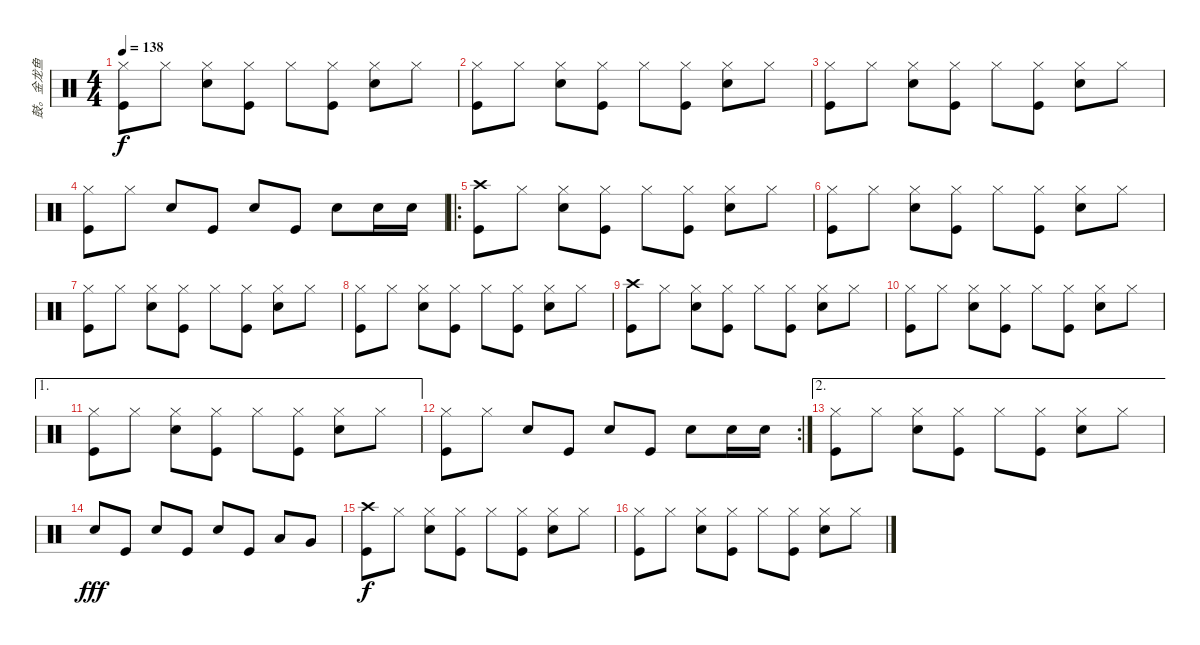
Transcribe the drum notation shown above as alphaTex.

\track ("鼓。金龙鱼" "鼓。金龙鱼") {instrument percussion}
\staff {score}
\articulation defaults
\ts (4 4)
\tempo 138
\clef neutral
\ks c
("Hi-Hat (closed)" "Kick (hit)").8{dy f} "Hi-Hat (closed)".8 ("Hi-Hat (closed)" "Snare (hit) 2").8 ("Hi-Hat (closed)" "Kick (hit)").8 "Hi-Hat (closed)".8 ("Hi-Hat (closed)" "Kick (hit)").8 ("Hi-Hat (closed)" "Snare (hit) 2").8 "Hi-Hat (closed)".8 |
("Hi-Hat (closed)" "Kick (hit)").8 "Hi-Hat (closed)".8 ("Hi-Hat (closed)" "Snare (hit) 2").8 ("Hi-Hat (closed)" "Kick (hit)").8 "Hi-Hat (closed)".8 ("Hi-Hat (closed)" "Kick (hit)").8 ("Hi-Hat (closed)" "Snare (hit) 2").8 "Hi-Hat (closed)".8 |
("Hi-Hat (closed)" "Kick (hit)").8 "Hi-Hat (closed)".8 ("Hi-Hat (closed)" "Snare (hit) 2").8 ("Hi-Hat (closed)" "Kick (hit)").8 "Hi-Hat (closed)".8 ("Hi-Hat (closed)" "Kick (hit)").8 ("Hi-Hat (closed)" "Snare (hit) 2").8 "Hi-Hat (closed)".8 |
("Hi-Hat (closed)" "Kick (hit)").8 "Hi-Hat (closed)".8 "Snare (hit) 2".8 "Kick (hit)".8 "Snare (hit) 2".8 "Kick (hit)".8 "Snare (hit) 2".8 "Snare (hit) 2".16 "Snare (hit) 2".16 |
\ro
("Crash high (hit)" "Kick (hit)").8 "Hi-Hat (closed)".8 ("Hi-Hat (closed)" "Snare (hit) 2").8 ("Hi-Hat (closed)" "Kick (hit)").8 "Hi-Hat (closed)".8 ("Hi-Hat (closed)" "Kick (hit)").8 ("Hi-Hat (closed)" "Snare (hit) 2").8 "Hi-Hat (closed)".8 |
("Hi-Hat (closed)" "Kick (hit)").8 "Hi-Hat (closed)".8 ("Hi-Hat (closed)" "Snare (hit) 2").8 ("Hi-Hat (closed)" "Kick (hit)").8 "Hi-Hat (closed)".8 ("Hi-Hat (closed)" "Kick (hit)").8 ("Hi-Hat (closed)" "Snare (hit) 2").8 "Hi-Hat (closed)".8 |
("Hi-Hat (closed)" "Kick (hit)").8 "Hi-Hat (closed)".8 ("Hi-Hat (closed)" "Snare (hit) 2").8 ("Hi-Hat (closed)" "Kick (hit)").8 "Hi-Hat (closed)".8 ("Hi-Hat (closed)" "Kick (hit)").8 ("Hi-Hat (closed)" "Snare (hit) 2").8 "Hi-Hat (closed)".8 |
("Hi-Hat (closed)" "Kick (hit)").8 "Hi-Hat (closed)".8 ("Hi-Hat (closed)" "Snare (hit) 2").8 ("Hi-Hat (closed)" "Kick (hit)").8 "Hi-Hat (closed)".8 ("Hi-Hat (closed)" "Kick (hit)").8 ("Hi-Hat (closed)" "Snare (hit) 2").8 "Hi-Hat (closed)".8 |
("Crash high (hit)" "Kick (hit)").8 "Hi-Hat (closed)".8 ("Hi-Hat (closed)" "Snare (hit) 2").8 ("Hi-Hat (closed)" "Kick (hit)").8 "Hi-Hat (closed)".8 ("Hi-Hat (closed)" "Kick (hit)").8 ("Hi-Hat (closed)" "Snare (hit) 2").8 "Hi-Hat (closed)".8 |
("Hi-Hat (closed)" "Kick (hit)").8 "Hi-Hat (closed)".8 ("Hi-Hat (closed)" "Snare (hit) 2").8 ("Hi-Hat (closed)" "Kick (hit)").8 "Hi-Hat (closed)".8 ("Hi-Hat (closed)" "Kick (hit)").8 ("Hi-Hat (closed)" "Snare (hit) 2").8 "Hi-Hat (closed)".8 |
\ae 1
("Hi-Hat (closed)" "Kick (hit)").8 "Hi-Hat (closed)".8 ("Hi-Hat (closed)" "Snare (hit) 2").8 ("Hi-Hat (closed)" "Kick (hit)").8 "Hi-Hat (closed)".8 ("Hi-Hat (closed)" "Kick (hit)").8 ("Hi-Hat (closed)" "Snare (hit) 2").8 "Hi-Hat (closed)".8 |
\rc 2
("Hi-Hat (closed)" "Kick (hit)").8 "Hi-Hat (closed)".8 "Snare (hit) 2".8 "Kick (hit)".8 "Snare (hit) 2".8 "Kick (hit)".8 "Snare (hit) 2".8 "Snare (hit) 2".16 "Snare (hit) 2".16 |
\ae 2
("Hi-Hat (closed)" "Kick (hit)").8 "Hi-Hat (closed)".8 ("Hi-Hat (closed)" "Snare (hit) 2").8 ("Hi-Hat (closed)" "Kick (hit)").8 "Hi-Hat (closed)".8 ("Hi-Hat (closed)" "Kick (hit)").8 ("Hi-Hat (closed)" "Snare (hit) 2").8 "Hi-Hat (closed)".8 |
"Snare (hit) 2".8{dy fff} "Kick (hit)".8 "Snare (hit) 2".8 "Kick (hit)".8 "Snare (hit) 2".8 "Kick (hit)".8 "Low Tom (hit)".8 "Very Low Tom (hit)".8 |
("Crash high (hit)" "Kick (hit)").8{dy f} "Hi-Hat (closed)".8 ("Hi-Hat (closed)" "Snare (hit) 2").8 ("Hi-Hat (closed)" "Kick (hit)").8 "Hi-Hat (closed)".8 ("Hi-Hat (closed)" "Kick (hit)").8 ("Hi-Hat (closed)" "Snare (hit) 2").8 "Hi-Hat (closed)".8 |
("Hi-Hat (closed)" "Kick (hit)").8 "Hi-Hat (closed)".8 ("Hi-Hat (closed)" "Snare (hit) 2").8 ("Hi-Hat (closed)" "Kick (hit)").8 "Hi-Hat (closed)".8 ("Hi-Hat (closed)" "Kick (hit)").8 ("Hi-Hat (closed)" "Snare (hit) 2").8 "Hi-Hat (closed)".8
